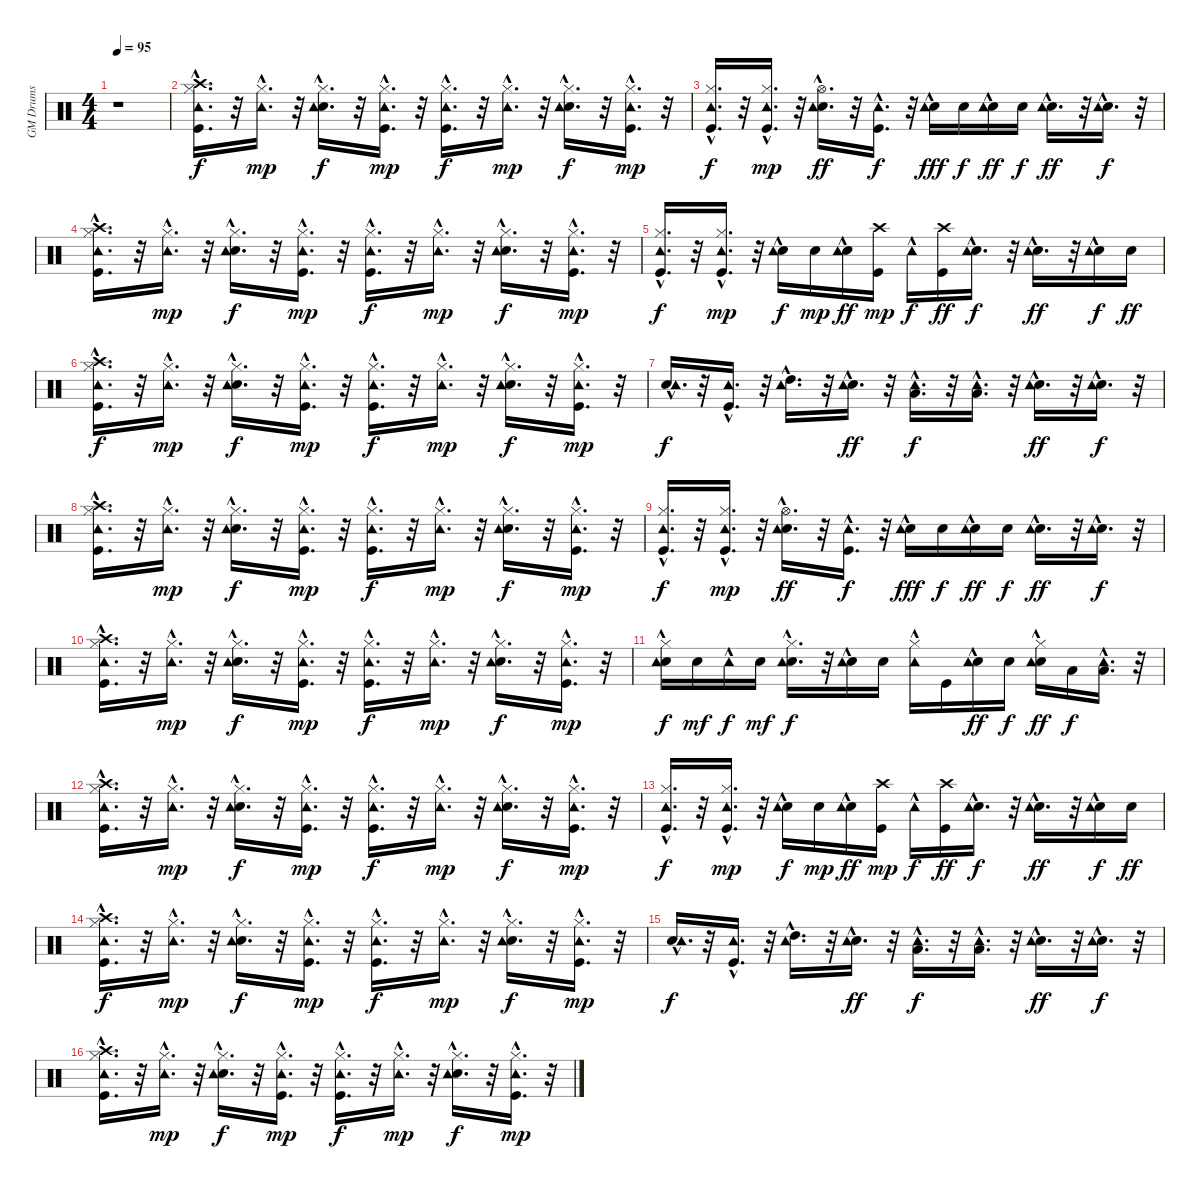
\track ("GM Drums            " "GM Drums  ") {instrument percussion}
\staff {score}
\articulation defaults
\ts (4 4)
\tempo 95
\clef neutral
\ks c
r.1{dy f} |
("Kick (hit)" "Hi-Hat (closed)" "Crash high (hit)" "Tambourine (hit)"{hac}).16{d} r.32 ("Hi-Hat (closed)" "Tambourine (hit)"{hac}).16{d dy mp} r.32 ("Snare (hit) 2" "Hi-Hat (closed)" "Tambourine (hit)"{hac}).16{d dy f} r.32 ("Kick (hit)" "Hi-Hat (closed)" "Tambourine (hit)"{hac}).16{d dy mp} r.32 ("Kick (hit)" "Hi-Hat (closed)" "Tambourine (hit)"{hac}).16{d dy f} r.32 ("Hi-Hat (closed)" "Tambourine (hit)"{hac}).16{d dy mp} r.32 ("Snare (hit) 2" "Hi-Hat (closed)" "Tambourine (hit)"{hac}).16{d dy f} r.32 ("Kick (hit)" "Hi-Hat (closed)" "Tambourine (hit)"{hac}).16{d dy mp} r.32 |
("Kick (hit)" "Hi-Hat (closed)" "Tambourine (hit)"{hac}).16{d dy f} r.32 ("Kick (hit)" "Hi-Hat (closed)" "Tambourine (hit)"{hac}).16{d dy mp} r.32 ("Snare (hit) 2" "Hi-Hat (open)" "Tambourine (hit)"{hac}).16{d dy ff} r.32 ("Kick (hit)" "Tambourine (hit)"{hac}).16{d dy f} r.32 ("Snare (hit) 2" "Tambourine (hit)"{hac}).16{dy fff} "Snare (hit) 2".16{dy f} ("Snare (hit) 2" "Tambourine (hit)"{hac}).16{dy ff} "Snare (hit) 2".16{dy f} ("Snare (hit) 2" "Tambourine (hit)"{hac}).16{d dy ff} r.32 ("Snare (hit) 2" "Tambourine (hit)"{hac}).16{d dy f} r.32 |
("Kick (hit)" "Hi-Hat (closed)" "Crash high (hit)" "Tambourine (hit)"{hac}).16{d} r.32 ("Hi-Hat (closed)" "Tambourine (hit)"{hac}).16{d dy mp} r.32 ("Snare (hit) 2" "Hi-Hat (closed)" "Tambourine (hit)"{hac}).16{d dy f} r.32 ("Kick (hit)" "Hi-Hat (closed)" "Tambourine (hit)"{hac}).16{d dy mp} r.32 ("Kick (hit)" "Hi-Hat (closed)" "Tambourine (hit)"{hac}).16{d dy f} r.32 ("Hi-Hat (closed)" "Tambourine (hit)"{hac}).16{d dy mp} r.32 ("Snare (hit) 2" "Hi-Hat (closed)" "Tambourine (hit)"{hac}).16{d dy f} r.32 ("Kick (hit)" "Hi-Hat (closed)" "Tambourine (hit)"{hac}).16{d dy mp} r.32 |
("Kick (hit)" "Hi-Hat (closed)" "Tambourine (hit)"{hac}).16{d dy f} r.32 ("Kick (hit)" "Hi-Hat (closed)" "Tambourine (hit)"{hac}).16{d dy mp} r.32 ("Snare (hit) 2" "Tambourine (hit)"{hac}).16{dy f} "Snare (hit) 2".16{dy mp} ("Snare (hit) 2" "Tambourine (hit)"{hac}).16{dy ff} ("Kick (hit)" "Crash high (hit)").16{dy mp} "Tambourine (hit)"{hac}.16{dy f} ("Kick (hit)" "Crash high (hit)").16{dy ff} ("Snare (hit) 2" "Tambourine (hit)"{hac}).16{d dy f} r.32 ("Snare (hit) 2" "Tambourine (hit)"{hac}).16{d dy ff} r.32 ("Snare (hit) 2" "Tambourine (hit)"{hac}).16{dy f} "Snare (hit) 2".16{dy ff} |
("Kick (hit)" "Hi-Hat (closed)" "Crash high (hit)" "Tambourine (hit)"{hac}).16{d dy f} r.32 ("Hi-Hat (closed)" "Tambourine (hit)"{hac}).16{d dy mp} r.32 ("Snare (hit) 2" "Hi-Hat (closed)" "Tambourine (hit)"{hac}).16{d dy f} r.32 ("Kick (hit)" "Hi-Hat (closed)" "Tambourine (hit)"{hac}).16{d dy mp} r.32 ("Kick (hit)" "Hi-Hat (closed)" "Tambourine (hit)"{hac}).16{d dy f} r.32 ("Hi-Hat (closed)" "Tambourine (hit)"{hac}).16{d dy mp} r.32 ("Snare (hit) 2" "Hi-Hat (closed)" "Tambourine (hit)"{hac}).16{d dy f} r.32 ("Kick (hit)" "Hi-Hat (closed)" "Tambourine (hit)"{hac}).16{d dy mp} r.32 |
("Snare (hit) 2" "Tambourine (hit)"{hac}).16{d dy f} r.32 ("Kick (hit)" "Tambourine (hit)"{hac}).16{d} r.32 ("High Tom (hit)" "Tambourine (hit)"{hac}).16{d} r.32 ("Snare (hit) 2" "Tambourine (hit)"{hac}).16{d dy ff} r.32 ("Low Tom (hit)" "Tambourine (hit)"{hac}).16{d dy f} r.32 ("Low Tom (hit)" "Tambourine (hit)"{hac}).16{d} r.32 ("Snare (hit) 2" "Tambourine (hit)"{hac}).16{d dy ff} r.32 ("Snare (hit) 2" "Tambourine (hit)"{hac}).16{d dy f} r.32 |
("Kick (hit)" "Hi-Hat (closed)" "Crash high (hit)" "Tambourine (hit)"{hac}).16{d} r.32 ("Hi-Hat (closed)" "Tambourine (hit)"{hac}).16{d dy mp} r.32 ("Snare (hit) 2" "Hi-Hat (closed)" "Tambourine (hit)"{hac}).16{d dy f} r.32 ("Kick (hit)" "Hi-Hat (closed)" "Tambourine (hit)"{hac}).16{d dy mp} r.32 ("Kick (hit)" "Hi-Hat (closed)" "Tambourine (hit)"{hac}).16{d dy f} r.32 ("Hi-Hat (closed)" "Tambourine (hit)"{hac}).16{d dy mp} r.32 ("Snare (hit) 2" "Hi-Hat (closed)" "Tambourine (hit)"{hac}).16{d dy f} r.32 ("Kick (hit)" "Hi-Hat (closed)" "Tambourine (hit)"{hac}).16{d dy mp} r.32 |
("Kick (hit)" "Hi-Hat (closed)" "Tambourine (hit)"{hac}).16{d dy f} r.32 ("Kick (hit)" "Hi-Hat (closed)" "Tambourine (hit)"{hac}).16{d dy mp} r.32 ("Snare (hit) 2" "Hi-Hat (open)" "Tambourine (hit)"{hac}).16{d dy ff} r.32 ("Kick (hit)" "Tambourine (hit)"{hac}).16{d dy f} r.32 ("Snare (hit) 2" "Tambourine (hit)"{hac}).16{dy fff} "Snare (hit) 2".16{dy f} ("Snare (hit) 2" "Tambourine (hit)"{hac}).16{dy ff} "Snare (hit) 2".16{dy f} ("Snare (hit) 2" "Tambourine (hit)"{hac}).16{d dy ff} r.32 ("Snare (hit) 2" "Tambourine (hit)"{hac}).16{d dy f} r.32 |
("Kick (hit)" "Hi-Hat (closed)" "Crash high (hit)" "Tambourine (hit)"{hac}).16{d} r.32 ("Hi-Hat (closed)" "Tambourine (hit)"{hac}).16{d dy mp} r.32 ("Snare (hit) 2" "Hi-Hat (closed)" "Tambourine (hit)"{hac}).16{d dy f} r.32 ("Kick (hit)" "Hi-Hat (closed)" "Tambourine (hit)"{hac}).16{d dy mp} r.32 ("Kick (hit)" "Hi-Hat (closed)" "Tambourine (hit)"{hac}).16{d dy f} r.32 ("Hi-Hat (closed)" "Tambourine (hit)"{hac}).16{d dy mp} r.32 ("Snare (hit) 2" "Hi-Hat (closed)" "Tambourine (hit)"{hac}).16{d dy f} r.32 ("Kick (hit)" "Hi-Hat (closed)" "Tambourine (hit)"{hac}).16{d dy mp} r.32 |
("Snare (hit) 2" "Hi-Hat (closed)" "Tambourine (hit)"{hac}).16{dy f} "Snare (hit) 2".16{dy mf} "Tambourine (hit)"{hac}.16{dy f} "Snare (hit) 2".16{dy mf} ("Snare (hit) 2" "Hi-Hat (closed)" "Tambourine (hit)"{hac}).16{d dy f} r.32 ("Snare (hit) 2" "Tambourine (hit)"{hac}).16 "Snare (hit) 2".16 ("Hi-Hat (closed)" "Tambourine (hit)"{hac}).16 "Kick (hit)".16 ("Snare (hit) 2" "Tambourine (hit)"{hac}).16{dy ff} "Snare (hit) 2".16{dy f} ("Snare (hit) 2" "Hi-Hat (closed)" "Tambourine (hit)"{hac}).16{dy ff} "Low Tom (hit)".16{dy f} ("Low Floor Tom (hit)" "Tambourine (hit)"{hac}).16{d} r.32 |
("Kick (hit)" "Hi-Hat (closed)" "Crash high (hit)" "Tambourine (hit)"{hac}).16{d} r.32 ("Hi-Hat (closed)" "Tambourine (hit)"{hac}).16{d dy mp} r.32 ("Snare (hit) 2" "Hi-Hat (closed)" "Tambourine (hit)"{hac}).16{d dy f} r.32 ("Kick (hit)" "Hi-Hat (closed)" "Tambourine (hit)"{hac}).16{d dy mp} r.32 ("Kick (hit)" "Hi-Hat (closed)" "Tambourine (hit)"{hac}).16{d dy f} r.32 ("Hi-Hat (closed)" "Tambourine (hit)"{hac}).16{d dy mp} r.32 ("Snare (hit) 2" "Hi-Hat (closed)" "Tambourine (hit)"{hac}).16{d dy f} r.32 ("Kick (hit)" "Hi-Hat (closed)" "Tambourine (hit)"{hac}).16{d dy mp} r.32 |
("Kick (hit)" "Hi-Hat (closed)" "Tambourine (hit)"{hac}).16{d dy f} r.32 ("Kick (hit)" "Hi-Hat (closed)" "Tambourine (hit)"{hac}).16{d dy mp} r.32 ("Snare (hit) 2" "Tambourine (hit)"{hac}).16{dy f} "Snare (hit) 2".16{dy mp} ("Snare (hit) 2" "Tambourine (hit)"{hac}).16{dy ff} ("Kick (hit)" "Crash high (hit)").16{dy mp} "Tambourine (hit)"{hac}.16{dy f} ("Kick (hit)" "Crash high (hit)").16{dy ff} ("Snare (hit) 2" "Tambourine (hit)"{hac}).16{d dy f} r.32 ("Snare (hit) 2" "Tambourine (hit)"{hac}).16{d dy ff} r.32 ("Snare (hit) 2" "Tambourine (hit)"{hac}).16{dy f} "Snare (hit) 2".16{dy ff} |
("Kick (hit)" "Hi-Hat (closed)" "Crash high (hit)" "Tambourine (hit)"{hac}).16{d dy f} r.32 ("Hi-Hat (closed)" "Tambourine (hit)"{hac}).16{d dy mp} r.32 ("Snare (hit) 2" "Hi-Hat (closed)" "Tambourine (hit)"{hac}).16{d dy f} r.32 ("Kick (hit)" "Hi-Hat (closed)" "Tambourine (hit)"{hac}).16{d dy mp} r.32 ("Kick (hit)" "Hi-Hat (closed)" "Tambourine (hit)"{hac}).16{d dy f} r.32 ("Hi-Hat (closed)" "Tambourine (hit)"{hac}).16{d dy mp} r.32 ("Snare (hit) 2" "Hi-Hat (closed)" "Tambourine (hit)"{hac}).16{d dy f} r.32 ("Kick (hit)" "Hi-Hat (closed)" "Tambourine (hit)"{hac}).16{d dy mp} r.32 |
("Snare (hit) 2" "Tambourine (hit)"{hac}).16{d dy f} r.32 ("Kick (hit)" "Tambourine (hit)"{hac}).16{d} r.32 ("High Tom (hit)" "Tambourine (hit)"{hac}).16{d} r.32 ("Snare (hit) 2" "Tambourine (hit)"{hac}).16{d dy ff} r.32 ("Low Tom (hit)" "Tambourine (hit)"{hac}).16{d dy f} r.32 ("Low Tom (hit)" "Tambourine (hit)"{hac}).16{d} r.32 ("Snare (hit) 2" "Tambourine (hit)"{hac}).16{d dy ff} r.32 ("Snare (hit) 2" "Tambourine (hit)"{hac}).16{d dy f} r.32 |
("Kick (hit)" "Hi-Hat (closed)" "Crash high (hit)" "Tambourine (hit)"{hac}).16{d} r.32 ("Hi-Hat (closed)" "Tambourine (hit)"{hac}).16{d dy mp} r.32 ("Snare (hit) 2" "Hi-Hat (closed)" "Tambourine (hit)"{hac}).16{d dy f} r.32 ("Kick (hit)" "Hi-Hat (closed)" "Tambourine (hit)"{hac}).16{d dy mp} r.32 ("Kick (hit)" "Hi-Hat (closed)" "Tambourine (hit)"{hac}).16{d dy f} r.32 ("Hi-Hat (closed)" "Tambourine (hit)"{hac}).16{d dy mp} r.32 ("Snare (hit) 2" "Hi-Hat (closed)" "Tambourine (hit)"{hac}).16{d dy f} r.32 ("Kick (hit)" "Hi-Hat (closed)" "Tambourine (hit)"{hac}).16{d dy mp} r.32
